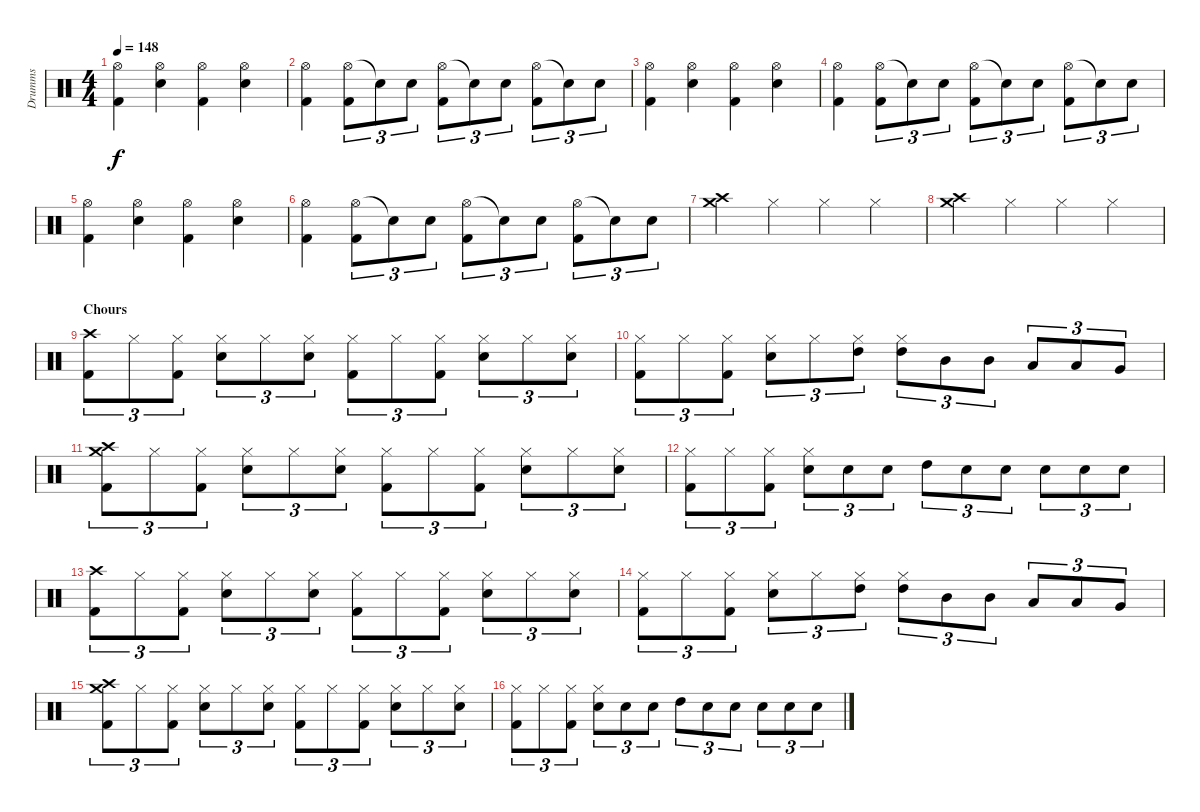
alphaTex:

\track ("Drumms" "Drumms") {instrument percussion}
\staff {score}
\articulation defaults
\ts (4 4)
\tempo 148
\clef neutral
\ks c
("Hi-Hat (open)" "Kick (hit) 2").4{dy f} ("Hi-Hat (open)" "Snare (hit) 2").4 ("Hi-Hat (open)" "Kick (hit) 2").4 ("Hi-Hat (open)" "Snare (hit) 2").4 |
("Hi-Hat (open)" "Kick (hit) 2").4 ("Hi-Hat (open)" "Kick (hit) 2").8{tu (3 2)} "Snare (hit)"{t}.8{tu (3 2)} "Snare (hit) 2".8{tu (3 2)} ("Hi-Hat (open)" "Kick (hit) 2").8{tu (3 2)} "Snare (hit)"{t}.8{tu (3 2)} "Snare (hit) 2".8{tu (3 2)} ("Hi-Hat (open)" "Kick (hit) 2").8{tu (3 2)} "Snare (hit) 2"{t}.8{tu (3 2)} "Snare (hit) 2".8{tu (3 2)} |
("Hi-Hat (open)" "Kick (hit) 2").4 ("Hi-Hat (open)" "Snare (hit) 2").4 ("Hi-Hat (open)" "Kick (hit) 2").4 ("Hi-Hat (open)" "Snare (hit) 2").4 |
("Hi-Hat (open)" "Kick (hit) 2").4 ("Hi-Hat (open)" "Kick (hit) 2").8{tu (3 2)} "Snare (hit)"{t}.8{tu (3 2)} "Snare (hit) 2".8{tu (3 2)} ("Hi-Hat (open)" "Kick (hit) 2").8{tu (3 2)} "Snare (hit)"{t}.8{tu (3 2)} "Snare (hit) 2".8{tu (3 2)} ("Hi-Hat (open)" "Kick (hit) 2").8{tu (3 2)} "Snare (hit) 2"{t}.8{tu (3 2)} "Snare (hit) 2".8{tu (3 2)} |
("Hi-Hat (open)" "Kick (hit) 2").4 ("Hi-Hat (open)" "Snare (hit) 2").4 ("Hi-Hat (open)" "Kick (hit) 2").4 ("Hi-Hat (open)" "Snare (hit) 2").4 |
("Hi-Hat (open)" "Kick (hit) 2").4 ("Hi-Hat (open)" "Kick (hit) 2").8{tu (3 2)} "Snare (hit)"{t}.8{tu (3 2)} "Snare (hit) 2".8{tu (3 2)} ("Hi-Hat (open)" "Kick (hit) 2").8{tu (3 2)} "Snare (hit)"{t}.8{tu (3 2)} "Snare (hit) 2".8{tu (3 2)} ("Hi-Hat (open)" "Kick (hit) 2").8{tu (3 2)} "Snare (hit) 2"{t}.8{tu (3 2)} "Snare (hit) 2".8{tu (3 2)} |
("Crash high (hit)" "Crash medium (hit)").4 "Hi-Hat (closed)".4 "Hi-Hat (closed)".4 "Hi-Hat (closed)".4 |
("Crash high (hit)" "Crash medium (hit)").4 "Hi-Hat (closed)".4 "Hi-Hat (closed)".4 "Hi-Hat (closed)".4 |
\section ("" "Chours")
("Crash high (hit)" "Kick (hit) 2").8{tu (3 2)} "Hi-Hat (closed)".8{tu (3 2)} ("Hi-Hat (closed)" "Kick (hit) 2").8{tu (3 2)} ("Hi-Hat (closed)" "Snare (hit) 2").8{tu (3 2)} "Hi-Hat (closed)".8{tu (3 2)} ("Hi-Hat (closed)" "Snare (hit) 2").8{tu (3 2)} ("Hi-Hat (closed)" "Kick (hit) 2").8{tu (3 2)} "Hi-Hat (closed)".8{tu (3 2)} ("Hi-Hat (closed)" "Kick (hit) 2").8{tu (3 2)} ("Hi-Hat (closed)" "Snare (hit) 2").8{tu (3 2)} "Hi-Hat (closed)".8{tu (3 2)} ("Hi-Hat (closed)" "Snare (hit) 2").8{tu (3 2)} |
("Hi-Hat (closed)" "Kick (hit) 2").8{tu (3 2)} "Hi-Hat (closed)".8{tu (3 2)} ("Hi-Hat (closed)" "Kick (hit) 2").8{tu (3 2)} ("Hi-Hat (closed)" "Snare (hit) 2").8{tu (3 2)} "Hi-Hat (closed)".8{tu (3 2)} ("Hi-Hat (closed)" "High Tom (hit)").8{tu (3 2)} ("Hi-Hat (closed)" "High Tom (hit)").8{tu (3 2)} "Mid Tom (hit)".8{tu (3 2)} "Mid Tom (hit)".8{tu (3 2)} "Low Tom (hit)".8{tu (3 2)} "Low Tom (hit)".8{tu (3 2)} "Very Low Tom (hit)".8{tu (3 2)} |
("Crash high (hit)" "Crash medium (hit)" "Kick (hit) 2").8{tu (3 2)} "Hi-Hat (closed)".8{tu (3 2)} ("Hi-Hat (closed)" "Kick (hit) 2").8{tu (3 2)} ("Hi-Hat (closed)" "Snare (hit) 2").8{tu (3 2)} "Hi-Hat (closed)".8{tu (3 2)} ("Hi-Hat (closed)" "Snare (hit) 2").8{tu (3 2)} ("Hi-Hat (closed)" "Kick (hit) 2").8{tu (3 2)} "Hi-Hat (closed)".8{tu (3 2)} ("Hi-Hat (closed)" "Kick (hit) 2").8{tu (3 2)} ("Hi-Hat (closed)" "Snare (hit) 2").8{tu (3 2)} "Hi-Hat (closed)".8{tu (3 2)} ("Hi-Hat (closed)" "Snare (hit) 2").8{tu (3 2)} |
("Hi-Hat (closed)" "Kick (hit) 2").8{tu (3 2)} "Hi-Hat (closed)".8{tu (3 2)} ("Hi-Hat (closed)" "Kick (hit) 2").8{tu (3 2)} ("Hi-Hat (closed)" "Snare (hit) 2").8{tu (3 2)} "Snare (hit) 2".8{tu (3 2)} "Snare (hit) 2".8{tu (3 2)} "High Tom (hit)".8{tu (3 2)} "Snare (hit) 2".8{tu (3 2)} "Snare (hit) 2".8{tu (3 2)} "Snare (hit) 2".8{tu (3 2)} "Snare (hit) 2".8{tu (3 2)} "Snare (hit) 2".8{tu (3 2)} |
("Crash high (hit)" "Kick (hit) 2").8{tu (3 2)} "Hi-Hat (closed)".8{tu (3 2)} ("Hi-Hat (closed)" "Kick (hit) 2").8{tu (3 2)} ("Hi-Hat (closed)" "Snare (hit) 2").8{tu (3 2)} "Hi-Hat (closed)".8{tu (3 2)} ("Hi-Hat (closed)" "Snare (hit) 2").8{tu (3 2)} ("Hi-Hat (closed)" "Kick (hit) 2").8{tu (3 2)} "Hi-Hat (closed)".8{tu (3 2)} ("Hi-Hat (closed)" "Kick (hit) 2").8{tu (3 2)} ("Hi-Hat (closed)" "Snare (hit) 2").8{tu (3 2)} "Hi-Hat (closed)".8{tu (3 2)} ("Hi-Hat (closed)" "Snare (hit) 2").8{tu (3 2)} |
("Hi-Hat (closed)" "Kick (hit) 2").8{tu (3 2)} "Hi-Hat (closed)".8{tu (3 2)} ("Hi-Hat (closed)" "Kick (hit) 2").8{tu (3 2)} ("Hi-Hat (closed)" "Snare (hit) 2").8{tu (3 2)} "Hi-Hat (closed)".8{tu (3 2)} ("Hi-Hat (closed)" "High Tom (hit)").8{tu (3 2)} ("Hi-Hat (closed)" "High Tom (hit)").8{tu (3 2)} "Mid Tom (hit)".8{tu (3 2)} "Mid Tom (hit)".8{tu (3 2)} "Low Tom (hit)".8{tu (3 2)} "Low Tom (hit)".8{tu (3 2)} "Very Low Tom (hit)".8{tu (3 2)} |
("Crash high (hit)" "Crash medium (hit)" "Kick (hit) 2").8{tu (3 2)} "Hi-Hat (closed)".8{tu (3 2)} ("Hi-Hat (closed)" "Kick (hit) 2").8{tu (3 2)} ("Hi-Hat (closed)" "Snare (hit) 2").8{tu (3 2)} "Hi-Hat (closed)".8{tu (3 2)} ("Hi-Hat (closed)" "Snare (hit) 2").8{tu (3 2)} ("Hi-Hat (closed)" "Kick (hit) 2").8{tu (3 2)} "Hi-Hat (closed)".8{tu (3 2)} ("Hi-Hat (closed)" "Kick (hit) 2").8{tu (3 2)} ("Hi-Hat (closed)" "Snare (hit) 2").8{tu (3 2)} "Hi-Hat (closed)".8{tu (3 2)} ("Hi-Hat (closed)" "Snare (hit) 2").8{tu (3 2)} |
("Hi-Hat (closed)" "Kick (hit) 2").8{tu (3 2)} "Hi-Hat (closed)".8{tu (3 2)} ("Hi-Hat (closed)" "Kick (hit) 2").8{tu (3 2)} ("Hi-Hat (closed)" "Snare (hit) 2").8{tu (3 2)} "Snare (hit) 2".8{tu (3 2)} "Snare (hit) 2".8{tu (3 2)} "High Tom (hit)".8{tu (3 2)} "Snare (hit) 2".8{tu (3 2)} "Snare (hit) 2".8{tu (3 2)} "Snare (hit) 2".8{tu (3 2)} "Snare (hit) 2".8{tu (3 2)} "Snare (hit) 2".8{tu (3 2)}
